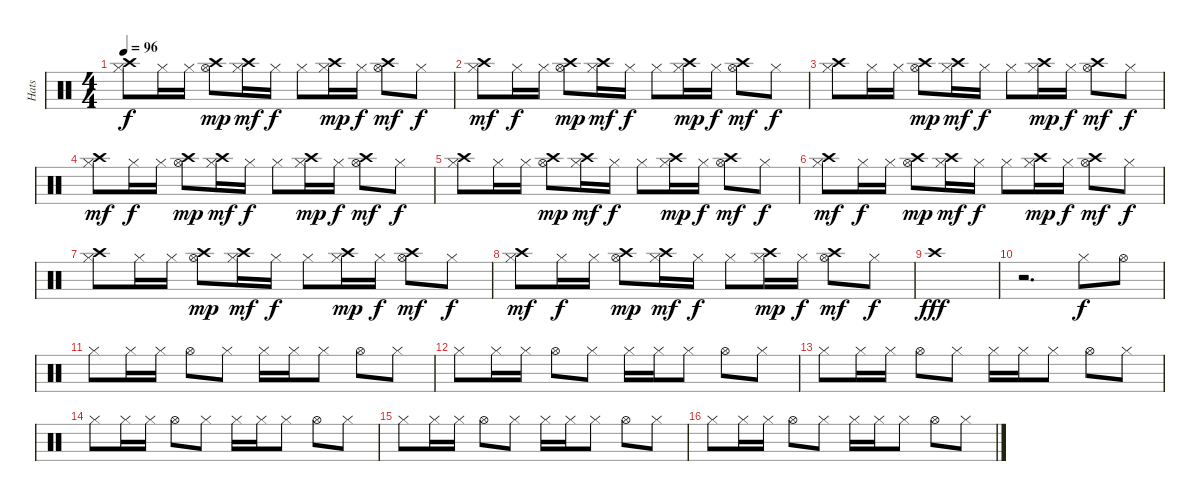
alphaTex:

\track ("Hats" "Hats") {instrument percussion}
\staff {score}
\articulation defaults
\ts (4 4)
\tempo 96
\clef neutral
\ks c
("Hi-Hat (closed)" "Crash high (hit)").8{dy f} "Hi-Hat (closed)".16 "Hi-Hat (closed)".16 ("Hi-Hat (open)" "Crash high (hit)").8{dy mp} ("Hi-Hat (closed)" "Crash high (hit)").16{dy mf} "Hi-Hat (closed)".16{dy f} "Hi-Hat (closed)".8 ("Hi-Hat (closed)" "Crash high (hit)").16{dy mp} "Hi-Hat (closed)".16{dy f} ("Hi-Hat (open)" "Crash high (hit)").8{dy mf} "Hi-Hat (closed)".8{dy f} |
("Hi-Hat (closed)" "Crash high (hit)").8{dy mf} "Hi-Hat (closed)".16{dy f} "Hi-Hat (closed)".16 ("Hi-Hat (open)" "Crash high (hit)").8{dy mp} ("Hi-Hat (closed)" "Crash high (hit)").16{dy mf} "Hi-Hat (closed)".16{dy f} "Hi-Hat (closed)".8 ("Hi-Hat (closed)" "Crash high (hit)").16{dy mp} "Hi-Hat (closed)".16{dy f} ("Hi-Hat (open)" "Crash high (hit)").8{dy mf} "Hi-Hat (closed)".8{dy f} |
("Hi-Hat (closed)" "Crash high (hit)").8 "Hi-Hat (closed)".16 "Hi-Hat (closed)".16 ("Hi-Hat (open)" "Crash high (hit)").8{dy mp} ("Hi-Hat (closed)" "Crash high (hit)").16{dy mf} "Hi-Hat (closed)".16{dy f} "Hi-Hat (closed)".8 ("Hi-Hat (closed)" "Crash high (hit)").16{dy mp} "Hi-Hat (closed)".16{dy f} ("Hi-Hat (open)" "Crash high (hit)").8{dy mf} "Hi-Hat (closed)".8{dy f} |
("Hi-Hat (closed)" "Crash high (hit)").8{dy mf} "Hi-Hat (closed)".16{dy f} "Hi-Hat (closed)".16 ("Hi-Hat (open)" "Crash high (hit)").8{dy mp} ("Hi-Hat (closed)" "Crash high (hit)").16{dy mf} "Hi-Hat (closed)".16{dy f} "Hi-Hat (closed)".8 ("Hi-Hat (closed)" "Crash high (hit)").16{dy mp} "Hi-Hat (closed)".16{dy f} ("Hi-Hat (open)" "Crash high (hit)").8{dy mf} "Hi-Hat (closed)".8{dy f} |
("Hi-Hat (closed)" "Crash high (hit)").8 "Hi-Hat (closed)".16 "Hi-Hat (closed)".16 ("Hi-Hat (open)" "Crash high (hit)").8{dy mp} ("Hi-Hat (closed)" "Crash high (hit)").16{dy mf} "Hi-Hat (closed)".16{dy f} "Hi-Hat (closed)".8 ("Hi-Hat (closed)" "Crash high (hit)").16{dy mp} "Hi-Hat (closed)".16{dy f} ("Hi-Hat (open)" "Crash high (hit)").8{dy mf} "Hi-Hat (closed)".8{dy f} |
("Hi-Hat (closed)" "Crash high (hit)").8{dy mf} "Hi-Hat (closed)".16{dy f} "Hi-Hat (closed)".16 ("Hi-Hat (open)" "Crash high (hit)").8{dy mp} ("Hi-Hat (closed)" "Crash high (hit)").16{dy mf} "Hi-Hat (closed)".16{dy f} "Hi-Hat (closed)".8 ("Hi-Hat (closed)" "Crash high (hit)").16{dy mp} "Hi-Hat (closed)".16{dy f} ("Hi-Hat (open)" "Crash high (hit)").8{dy mf} "Hi-Hat (closed)".8{dy f} |
("Hi-Hat (closed)" "Crash high (hit)").8 "Hi-Hat (closed)".16 "Hi-Hat (closed)".16 ("Hi-Hat (open)" "Crash high (hit)").8{dy mp} ("Hi-Hat (closed)" "Crash high (hit)").16{dy mf} "Hi-Hat (closed)".16{dy f} "Hi-Hat (closed)".8 ("Hi-Hat (closed)" "Crash high (hit)").16{dy mp} "Hi-Hat (closed)".16{dy f} ("Hi-Hat (open)" "Crash high (hit)").8{dy mf} "Hi-Hat (closed)".8{dy f} |
("Hi-Hat (closed)" "Crash high (hit)").8{dy mf} "Hi-Hat (closed)".16{dy f} "Hi-Hat (closed)".16 ("Hi-Hat (open)" "Crash high (hit)").8{dy mp} ("Hi-Hat (closed)" "Crash high (hit)").16{dy mf} "Hi-Hat (closed)".16{dy f} "Hi-Hat (closed)".8 ("Hi-Hat (closed)" "Crash high (hit)").16{dy mp} "Hi-Hat (closed)".16{dy f} ("Hi-Hat (open)" "Crash high (hit)").8{dy mf} "Hi-Hat (closed)".8{dy f} |
"Crash high (hit)".1{dy fff} |
r.2{d} "Hi-Hat (closed)".8{dy f} "Hi-Hat (open)".8 |
"Hi-Hat (closed)".8 "Hi-Hat (closed)".16 "Hi-Hat (closed)".16 "Hi-Hat (open)".8 "Hi-Hat (closed)".8 "Hi-Hat (closed)".16 "Hi-Hat (closed)".16 "Hi-Hat (closed)".8 "Hi-Hat (open)".8 "Hi-Hat (closed)".8 |
"Hi-Hat (closed)".8 "Hi-Hat (closed)".16 "Hi-Hat (closed)".16 "Hi-Hat (open)".8 "Hi-Hat (closed)".8 "Hi-Hat (closed)".16 "Hi-Hat (closed)".16 "Hi-Hat (closed)".8 "Hi-Hat (open)".8 "Hi-Hat (closed)".8 |
"Hi-Hat (closed)".8 "Hi-Hat (closed)".16 "Hi-Hat (closed)".16 "Hi-Hat (open)".8 "Hi-Hat (closed)".8 "Hi-Hat (closed)".16 "Hi-Hat (closed)".16 "Hi-Hat (closed)".8 "Hi-Hat (open)".8 "Hi-Hat (closed)".8 |
"Hi-Hat (closed)".8 "Hi-Hat (closed)".16 "Hi-Hat (closed)".16 "Hi-Hat (open)".8 "Hi-Hat (closed)".8 "Hi-Hat (closed)".16 "Hi-Hat (closed)".16 "Hi-Hat (closed)".8 "Hi-Hat (open)".8 "Hi-Hat (closed)".8 |
"Hi-Hat (closed)".8 "Hi-Hat (closed)".16 "Hi-Hat (closed)".16 "Hi-Hat (open)".8 "Hi-Hat (closed)".8 "Hi-Hat (closed)".16 "Hi-Hat (closed)".16 "Hi-Hat (closed)".8 "Hi-Hat (open)".8 "Hi-Hat (closed)".8 |
"Hi-Hat (closed)".8 "Hi-Hat (closed)".16 "Hi-Hat (closed)".16 "Hi-Hat (open)".8 "Hi-Hat (closed)".8 "Hi-Hat (closed)".16 "Hi-Hat (closed)".16 "Hi-Hat (closed)".8 "Hi-Hat (open)".8 "Hi-Hat (closed)".8
